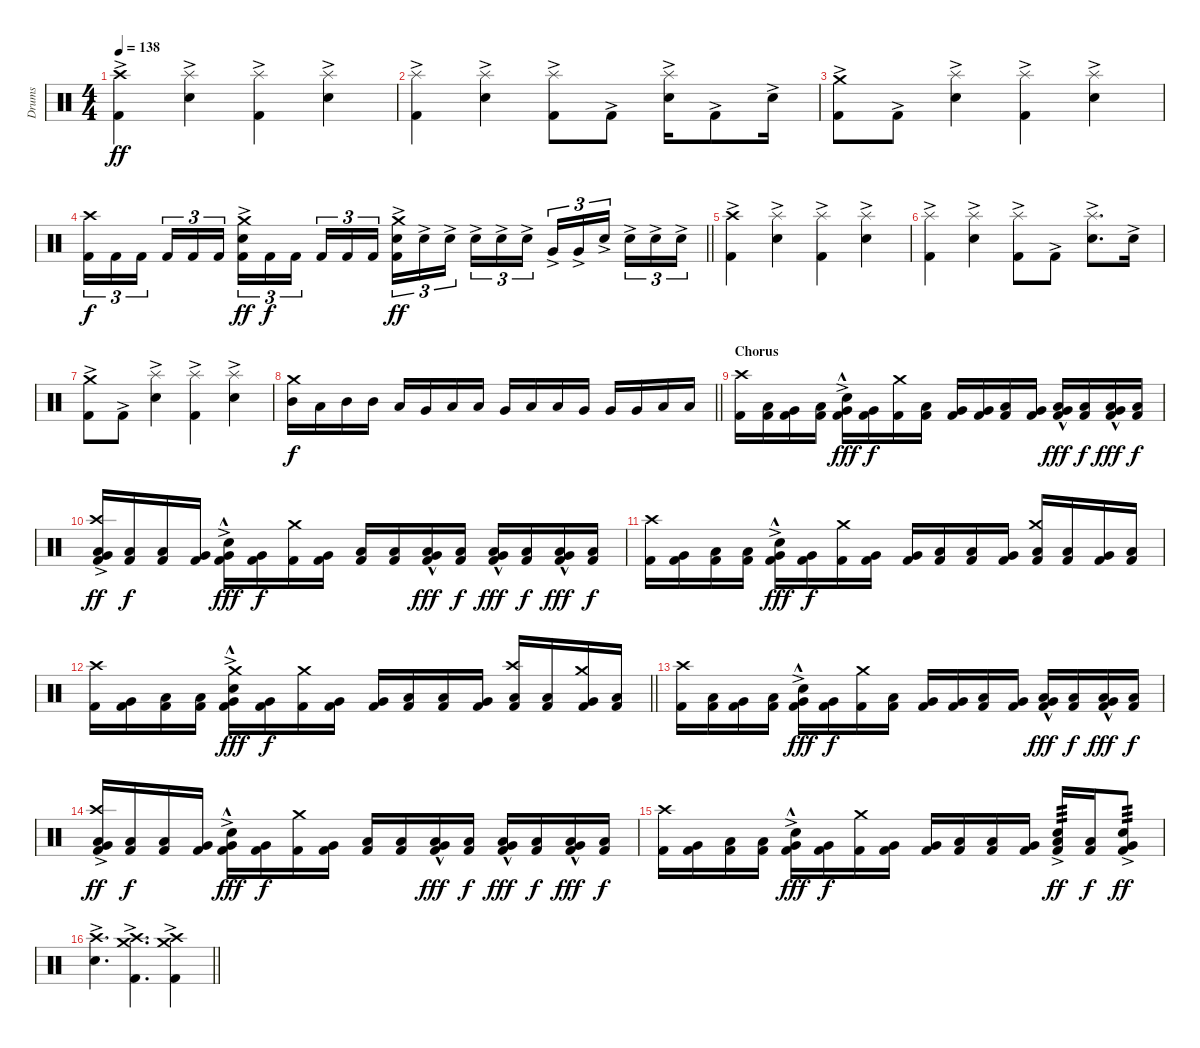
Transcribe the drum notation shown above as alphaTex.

\track ("Drums" "Drums") {instrument percussion}
\staff {score}
\articulation defaults
\ts (4 4)
\section ("" "")
\tempo 138
\clef neutral
\ks c
("Kick (hit) 2"{ac} "Crash high (hit)").4{dy ff} ("Snare (hit) 2"{ac} "Splash (hit)").4 ("Kick (hit) 2"{ac} "Splash (hit)").4 ("Snare (hit) 2"{ac} "Splash (hit)").4 |
("Kick (hit) 2"{ac} "Splash (hit)").4 ("Snare (hit) 2"{ac} "Splash (hit)").4 ("Kick (hit) 2"{ac} "Splash (hit)").8 "Kick (hit) 2"{ac}.8 ("Snare (hit) 2"{ac} "Splash (hit)").16 "Kick (hit) 2"{ac}.8 "Snare (hit) 2"{ac}.16 |
("Kick (hit) 2"{ac} "Crash medium (hit)").8 "Kick (hit) 2"{ac}.8 ("Snare (hit) 2"{ac} "Splash (hit)").4 ("Kick (hit) 2"{ac} "Splash (hit)").4 ("Snare (hit) 2"{ac} "Splash (hit)").4 |
\barLineRight lightlight
("Kick (hit) 2" "Crash high (hit)").16{tu (3 2) dy f} "Kick (hit) 2".16{tu (3 2)} "Kick (hit) 2".16{tu (3 2) beam splitsecondary} "Kick (hit) 2".16{tu (3 2)} "Kick (hit) 2".16{tu (3 2)} "Kick (hit) 2".16{tu (3 2)} ("Kick (hit) 2" "Snare (hit) 2"{ac} "Crash medium (hit)").16{tu (3 2) dy ff} "Kick (hit) 2".16{tu (3 2) dy f} "Kick (hit) 2".16{tu (3 2) beam splitsecondary} "Kick (hit) 2".16{tu (3 2)} "Kick (hit) 2".16{tu (3 2)} "Kick (hit) 2".16{tu (3 2)} ("Kick (hit) 2" "Snare (hit) 2"{ac} "Crash medium (hit)").16{tu (3 2) dy ff} "Snare (hit) 2"{ac}.16{tu (3 2)} "Snare (hit) 2"{ac}.16{tu (3 2) beam splitsecondary} "Snare (hit) 2"{ac}.16{tu (3 2)} "Snare (hit) 2"{ac}.16{tu (3 2)} "Snare (hit) 2"{ac}.16{tu (3 2)} "Very Low Tom (hit)"{ac}.16{tu (3 2)} "Very Low Tom (hit)"{ac}.16{tu (3 2)} "Snare (hit) 2"{ac}.16{tu (3 2) beam splitsecondary} "Snare (hit) 2"{ac}.16{tu (3 2)} "Snare (hit) 2"{ac}.16{tu (3 2)} "Snare (hit) 2"{ac}.16{tu (3 2)} |
\section ("" "")
("Kick (hit) 2"{ac} "Crash high (hit)").4 ("Snare (hit) 2"{ac} "Splash (hit)").4 ("Kick (hit) 2"{ac} "Splash (hit)").4 ("Snare (hit) 2"{ac} "Splash (hit)").4 |
("Kick (hit) 2"{ac} "Splash (hit)").4 ("Snare (hit) 2"{ac} "Splash (hit)").4 ("Kick (hit) 2"{ac} "Splash (hit)").8 "Kick (hit) 2"{ac}.8 ("Snare (hit) 2"{ac} "Splash (hit)").8{d} "Snare (hit) 2"{ac}.16 |
("Kick (hit) 2"{ac} "Crash medium (hit)").8 "Kick (hit) 2"{ac}.8 ("Snare (hit) 2"{ac} "Splash (hit)").4 ("Kick (hit) 2"{ac} "Splash (hit)").4 ("Snare (hit) 2"{ac} "Splash (hit)").4 |
\barLineRight lightlight
("Mid Tom (hit)" "Crash medium (hit)").16{dy f} "Low Tom (hit)".16 "Mid Tom (hit)".16 "Mid Tom (hit)".16 "Low Tom (hit)".16 "Very Low Tom (hit)".16 "Low Tom (hit)".16 "Low Tom (hit)".16 "Very Low Tom (hit)".16 "Low Tom (hit)".16 "Low Tom (hit)".16 "Very Low Tom (hit)".16 "Very Low Tom (hit)".16 "Very Low Tom (hit)".16 "Low Floor Tom (hit)".16 "Low Floor Tom (hit)".16 |
\section ("" "Chorus")
("Kick (hit) 2" "Crash high (hit)").16 ("Kick (hit) 2" "Low Floor Tom (hit)").16 ("Kick (hit) 2" "Very Low Tom (hit)").16 ("Kick (hit) 2" "Low Floor Tom (hit)").16 ("Kick (hit) 2" "Snare (hit) 2"{ac} "Very Low Tom (hit)"{hac}).16{dy fff} ("Kick (hit) 2" "Very Low Tom (hit)").16{dy f} ("Kick (hit) 2" "Crash medium (hit)").16 ("Kick (hit) 2" "Low Floor Tom (hit)").16 ("Kick (hit) 2" "Very Low Tom (hit)").16 ("Kick (hit) 2" "Very Low Tom (hit)").16 ("Kick (hit) 2" "Low Floor Tom (hit)").16 ("Kick (hit) 2" "Very Low Tom (hit)").16 ("Kick (hit) 2" "Very Low Tom (hit)"{hac} "Low Tom (hit)"{hac}).16{dy fff} ("Kick (hit) 2" "Low Floor Tom (hit)").16{dy f} ("Kick (hit) 2" "Very Low Tom (hit)"{hac} "Low Tom (hit)"{hac}).16{dy fff} ("Kick (hit) 2" "Low Floor Tom (hit)").16{dy f} |
("Kick (hit) 2" "Very Low Tom (hit)"{ac} "Low Floor Tom (hit)"{ac} "Crash high (hit)").16{dy ff} ("Kick (hit) 2" "Low Floor Tom (hit)").16{dy f} ("Kick (hit) 2" "Low Floor Tom (hit)").16 ("Kick (hit) 2" "Very Low Tom (hit)").16 ("Kick (hit) 2" "Snare (hit) 2"{ac} "Very Low Tom (hit)"{hac}).16{dy fff} ("Kick (hit) 2" "Very Low Tom (hit)").16{dy f} ("Kick (hit) 2" "Crash medium (hit)").16 ("Kick (hit) 2" "Very Low Tom (hit)").16 ("Kick (hit) 2" "Low Floor Tom (hit)").16 ("Kick (hit) 2" "Low Floor Tom (hit)").16 ("Kick (hit) 2" "Very Low Tom (hit)"{hac} "Low Tom (hit)"{hac}).16{dy fff} ("Kick (hit) 2" "Low Floor Tom (hit)").16{dy f} ("Kick (hit) 2" "Very Low Tom (hit)"{hac} "Low Tom (hit)"{hac}).16{dy fff} ("Kick (hit) 2" "Low Floor Tom (hit)").16{dy f} ("Kick (hit) 2" "Very Low Tom (hit)"{hac} "Low Tom (hit)"{hac}).16{dy fff} ("Kick (hit) 2" "Low Floor Tom (hit)").16{dy f} |
("Kick (hit) 2" "Crash high (hit)").16 ("Kick (hit) 2" "Very Low Tom (hit)").16 ("Kick (hit) 2" "Low Floor Tom (hit)").16 ("Kick (hit) 2" "Low Floor Tom (hit)").16 ("Kick (hit) 2" "Snare (hit) 2"{ac} "Very Low Tom (hit)"{hac}).16{dy fff} ("Kick (hit) 2" "Very Low Tom (hit)").16{dy f} ("Kick (hit) 2" "Crash medium (hit)").16 ("Kick (hit) 2" "Very Low Tom (hit)").16 ("Kick (hit) 2" "Very Low Tom (hit)").16 ("Kick (hit) 2" "Low Floor Tom (hit)").16 ("Kick (hit) 2" "Low Floor Tom (hit)").16 ("Kick (hit) 2" "Very Low Tom (hit)").16 ("Kick (hit) 2" "Low Tom (hit)" "Crash medium (hit)").16 ("Kick (hit) 2" "Low Floor Tom (hit)").16 ("Kick (hit) 2" "Very Low Tom (hit)").16 ("Kick (hit) 2" "Low Floor Tom (hit)").16 |
\barLineRight lightlight
("Kick (hit) 2" "Crash high (hit)").16 ("Kick (hit) 2" "Very Low Tom (hit)").16 ("Kick (hit) 2" "Low Floor Tom (hit)").16 ("Kick (hit) 2" "Low Floor Tom (hit)").16 ("Kick (hit) 2" "Snare (hit) 2"{ac} "Very Low Tom (hit)"{hac} "Crash medium (hit)").16{dy fff} ("Kick (hit) 2" "Very Low Tom (hit)").16{dy f} ("Kick (hit) 2" "Crash medium (hit)").16 ("Kick (hit) 2" "Very Low Tom (hit)").16 ("Kick (hit) 2" "Very Low Tom (hit)").16 ("Kick (hit) 2" "Low Floor Tom (hit)").16 ("Kick (hit) 2" "Low Floor Tom (hit)").16 ("Kick (hit) 2" "Very Low Tom (hit)").16 ("Kick (hit) 2" "Low Tom (hit)" "Crash high (hit)").16 ("Kick (hit) 2" "Low Floor Tom (hit)").16 ("Kick (hit) 2" "Very Low Tom (hit)" "Crash medium (hit)").16 ("Kick (hit) 2" "Low Floor Tom (hit)").16 |
\section ("" "")
("Kick (hit) 2" "Crash high (hit)").16 ("Kick (hit) 2" "Low Floor Tom (hit)").16 ("Kick (hit) 2" "Very Low Tom (hit)").16 ("Kick (hit) 2" "Low Floor Tom (hit)").16 ("Kick (hit) 2" "Snare (hit) 2"{ac} "Very Low Tom (hit)"{hac}).16{dy fff} ("Kick (hit) 2" "Very Low Tom (hit)").16{dy f} ("Kick (hit) 2" "Crash medium (hit)").16 ("Kick (hit) 2" "Low Floor Tom (hit)").16 ("Kick (hit) 2" "Very Low Tom (hit)").16 ("Kick (hit) 2" "Very Low Tom (hit)").16 ("Kick (hit) 2" "Low Floor Tom (hit)").16 ("Kick (hit) 2" "Very Low Tom (hit)").16 ("Kick (hit) 2" "Very Low Tom (hit)"{hac} "Low Tom (hit)"{hac}).16{dy fff} ("Kick (hit) 2" "Low Floor Tom (hit)").16{dy f} ("Kick (hit) 2" "Very Low Tom (hit)"{hac} "Low Tom (hit)"{hac}).16{dy fff} ("Kick (hit) 2" "Low Floor Tom (hit)").16{dy f} |
("Kick (hit) 2" "Very Low Tom (hit)"{ac} "Low Floor Tom (hit)"{ac} "Crash high (hit)").16{dy ff} ("Kick (hit) 2" "Low Floor Tom (hit)").16{dy f} ("Kick (hit) 2" "Low Floor Tom (hit)").16 ("Kick (hit) 2" "Very Low Tom (hit)").16 ("Kick (hit) 2" "Snare (hit) 2"{ac} "Very Low Tom (hit)"{hac}).16{dy fff} ("Kick (hit) 2" "Very Low Tom (hit)").16{dy f} ("Kick (hit) 2" "Crash medium (hit)").16 ("Kick (hit) 2" "Very Low Tom (hit)").16 ("Kick (hit) 2" "Low Floor Tom (hit)").16 ("Kick (hit) 2" "Low Floor Tom (hit)").16 ("Kick (hit) 2" "Very Low Tom (hit)"{hac} "Low Tom (hit)"{hac}).16{dy fff} ("Kick (hit) 2" "Low Floor Tom (hit)").16{dy f} ("Kick (hit) 2" "Very Low Tom (hit)"{hac} "Low Tom (hit)"{hac}).16{dy fff} ("Kick (hit) 2" "Low Floor Tom (hit)").16{dy f} ("Kick (hit) 2" "Very Low Tom (hit)"{hac} "Low Tom (hit)"{hac}).16{dy fff} ("Kick (hit) 2" "Low Floor Tom (hit)").16{dy f} |
("Kick (hit) 2" "Crash high (hit)").16 ("Kick (hit) 2" "Very Low Tom (hit)").16 ("Kick (hit) 2" "Low Floor Tom (hit)").16 ("Kick (hit) 2" "Low Floor Tom (hit)").16 ("Kick (hit) 2" "Snare (hit) 2"{ac} "Very Low Tom (hit)"{hac}).16{dy fff} ("Kick (hit) 2" "Very Low Tom (hit)").16{dy f} ("Kick (hit) 2" "Crash medium (hit)").16 ("Kick (hit) 2" "Very Low Tom (hit)").16 ("Kick (hit) 2" "Very Low Tom (hit)").16 ("Kick (hit) 2" "Low Floor Tom (hit)").16 ("Kick (hit) 2" "Low Floor Tom (hit)").16 ("Kick (hit) 2" "Very Low Tom (hit)").16 ("Kick (hit) 2" "Snare (hit) 2"{ac} "Low Tom (hit)").16{tp 3 dy ff} ("Kick (hit) 2" "Low Floor Tom (hit)").16{dy f} ("Kick (hit) 2" "Snare (hit) 2"{ac} "Very Low Tom (hit)").8{tp 3 dy ff} |
\barLineRight lightlight
("Snare (hit) 2"{ac} "Crash high (hit)").4{d} ("Kick (hit) 2"{ac} "Crash medium (hit)" "Crash high (hit)").4{d} ("Kick (hit) 2"{ac} "Crash medium (hit)" "Crash high (hit)").4
